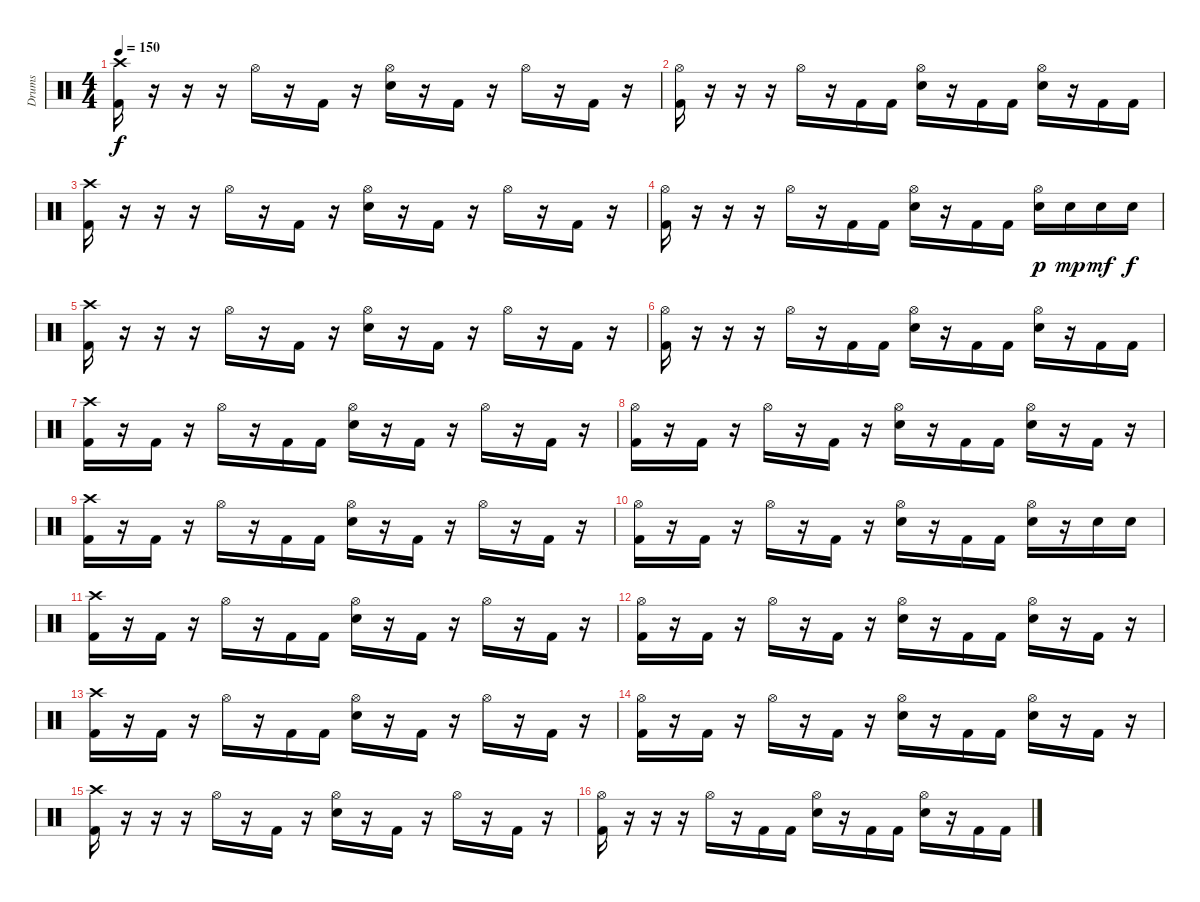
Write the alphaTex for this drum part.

\track ("Drums" "Drums") {instrument percussion}
\staff {score}
\articulation defaults
\ts (4 4)
\tempo 150
\clef neutral
\ks c
("Crash high (hit)" "Kick (hit) 2").16{dy f} r.16 r.16 r.16 "Hi-Hat (open)".16 r.16 "Kick (hit) 2".16 r.16 ("Hi-Hat (open)" "Electric Snare (hit)").16 r.16 "Kick (hit) 2".16 r.16 "Hi-Hat (open)".16 r.16 "Kick (hit) 2".16 r.16 |
("Hi-Hat (open)" "Kick (hit) 2").16 r.16 r.16 r.16 "Hi-Hat (open)".16 r.16 "Kick (hit) 2".16 "Kick (hit) 2".16 ("Hi-Hat (open)" "Electric Snare (hit)").16 r.16 "Kick (hit) 2".16 "Kick (hit) 2".16 ("Hi-Hat (open)" "Electric Snare (hit)").16 r.16 "Kick (hit) 2".16 "Kick (hit) 2".16 |
("Crash high (hit)" "Kick (hit) 2").16 r.16 r.16 r.16 "Hi-Hat (open)".16 r.16 "Kick (hit) 2".16 r.16 ("Hi-Hat (open)" "Electric Snare (hit)").16 r.16 "Kick (hit) 2".16 r.16 "Hi-Hat (open)".16 r.16 "Kick (hit) 2".16 r.16 |
("Hi-Hat (open)" "Kick (hit) 2").16 r.16 r.16 r.16 "Hi-Hat (open)".16 r.16 "Kick (hit) 2".16 "Kick (hit) 2".16 ("Hi-Hat (open)" "Electric Snare (hit)").16 r.16 "Kick (hit) 2".16 "Kick (hit) 2".16 ("Hi-Hat (open)" "Electric Snare (hit)").16{dy p} "Electric Snare (hit)".16{dy mp} "Electric Snare (hit)".16{dy mf} "Electric Snare (hit)".16{dy f} |
("Crash high (hit)" "Kick (hit) 2").16 r.16 r.16 r.16 "Hi-Hat (open)".16 r.16 "Kick (hit) 2".16 r.16 ("Hi-Hat (open)" "Electric Snare (hit)").16 r.16 "Kick (hit) 2".16 r.16 "Hi-Hat (open)".16 r.16 "Kick (hit) 2".16 r.16 |
("Hi-Hat (open)" "Kick (hit) 2").16 r.16 r.16 r.16 "Hi-Hat (open)".16 r.16 "Kick (hit) 2".16 "Kick (hit) 2".16 ("Hi-Hat (open)" "Electric Snare (hit)").16 r.16 "Kick (hit) 2".16 "Kick (hit) 2".16 ("Hi-Hat (open)" "Electric Snare (hit)").16 r.16 "Kick (hit) 2".16 "Kick (hit) 2".16 |
("Crash high (hit)" "Kick (hit) 2").16 r.16 "Kick (hit) 2".16 r.16 "Hi-Hat (open)".16 r.16 "Kick (hit) 2".16 "Kick (hit) 2".16 ("Hi-Hat (open)" "Electric Snare (hit)").16 r.16 "Kick (hit) 2".16 r.16 "Hi-Hat (open)".16 r.16 "Kick (hit) 2".16 r.16 |
("Hi-Hat (open)" "Kick (hit) 2").16 r.16 "Kick (hit) 2".16 r.16 "Hi-Hat (open)".16 r.16 "Kick (hit) 2".16 r.16 ("Hi-Hat (open)" "Electric Snare (hit)").16 r.16 "Kick (hit) 2".16 "Kick (hit) 2".16 ("Hi-Hat (open)" "Electric Snare (hit)").16 r.16 "Kick (hit) 2".16 r.16 |
("Crash high (hit)" "Kick (hit) 2").16 r.16 "Kick (hit) 2".16 r.16 "Hi-Hat (open)".16 r.16 "Kick (hit) 2".16 "Kick (hit) 2".16 ("Hi-Hat (open)" "Electric Snare (hit)").16 r.16 "Kick (hit) 2".16 r.16 "Hi-Hat (open)".16 r.16 "Kick (hit) 2".16 r.16 |
("Hi-Hat (open)" "Kick (hit) 2").16 r.16 "Kick (hit) 2".16 r.16 "Hi-Hat (open)".16 r.16 "Kick (hit) 2".16 r.16 ("Hi-Hat (open)" "Electric Snare (hit)").16 r.16 "Kick (hit) 2".16 "Kick (hit) 2".16 ("Hi-Hat (open)" "Electric Snare (hit)").16 r.16 "Electric Snare (hit)".16 "Electric Snare (hit)".16 |
("Crash high (hit)" "Kick (hit) 2").16 r.16 "Kick (hit) 2".16 r.16 "Hi-Hat (open)".16 r.16 "Kick (hit) 2".16 "Kick (hit) 2".16 ("Hi-Hat (open)" "Electric Snare (hit)").16 r.16 "Kick (hit) 2".16 r.16 "Hi-Hat (open)".16 r.16 "Kick (hit) 2".16 r.16 |
("Hi-Hat (open)" "Kick (hit) 2").16 r.16 "Kick (hit) 2".16 r.16 "Hi-Hat (open)".16 r.16 "Kick (hit) 2".16 r.16 ("Hi-Hat (open)" "Electric Snare (hit)").16 r.16 "Kick (hit) 2".16 "Kick (hit) 2".16 ("Hi-Hat (open)" "Electric Snare (hit)").16 r.16 "Kick (hit) 2".16 r.16 |
("Crash high (hit)" "Kick (hit) 2").16 r.16 "Kick (hit) 2".16 r.16 "Hi-Hat (open)".16 r.16 "Kick (hit) 2".16 "Kick (hit) 2".16 ("Hi-Hat (open)" "Electric Snare (hit)").16 r.16 "Kick (hit) 2".16 r.16 "Hi-Hat (open)".16 r.16 "Kick (hit) 2".16 r.16 |
("Hi-Hat (open)" "Kick (hit) 2").16 r.16 "Kick (hit) 2".16 r.16 "Hi-Hat (open)".16 r.16 "Kick (hit) 2".16 r.16 ("Hi-Hat (open)" "Electric Snare (hit)").16 r.16 "Kick (hit) 2".16 "Kick (hit) 2".16 ("Hi-Hat (open)" "Electric Snare (hit)").16 r.16 "Kick (hit) 2".16 r.16 |
("Crash high (hit)" "Kick (hit) 2").16 r.16 r.16 r.16 "Hi-Hat (open)".16 r.16 "Kick (hit) 2".16 r.16 ("Hi-Hat (open)" "Electric Snare (hit)").16 r.16 "Kick (hit) 2".16 r.16 "Hi-Hat (open)".16 r.16 "Kick (hit) 2".16 r.16 |
("Hi-Hat (open)" "Kick (hit) 2").16 r.16 r.16 r.16 "Hi-Hat (open)".16 r.16 "Kick (hit) 2".16 "Kick (hit) 2".16 ("Hi-Hat (open)" "Electric Snare (hit)").16 r.16 "Kick (hit) 2".16 "Kick (hit) 2".16 ("Hi-Hat (open)" "Electric Snare (hit)").16 r.16 "Kick (hit) 2".16 "Kick (hit) 2".16
